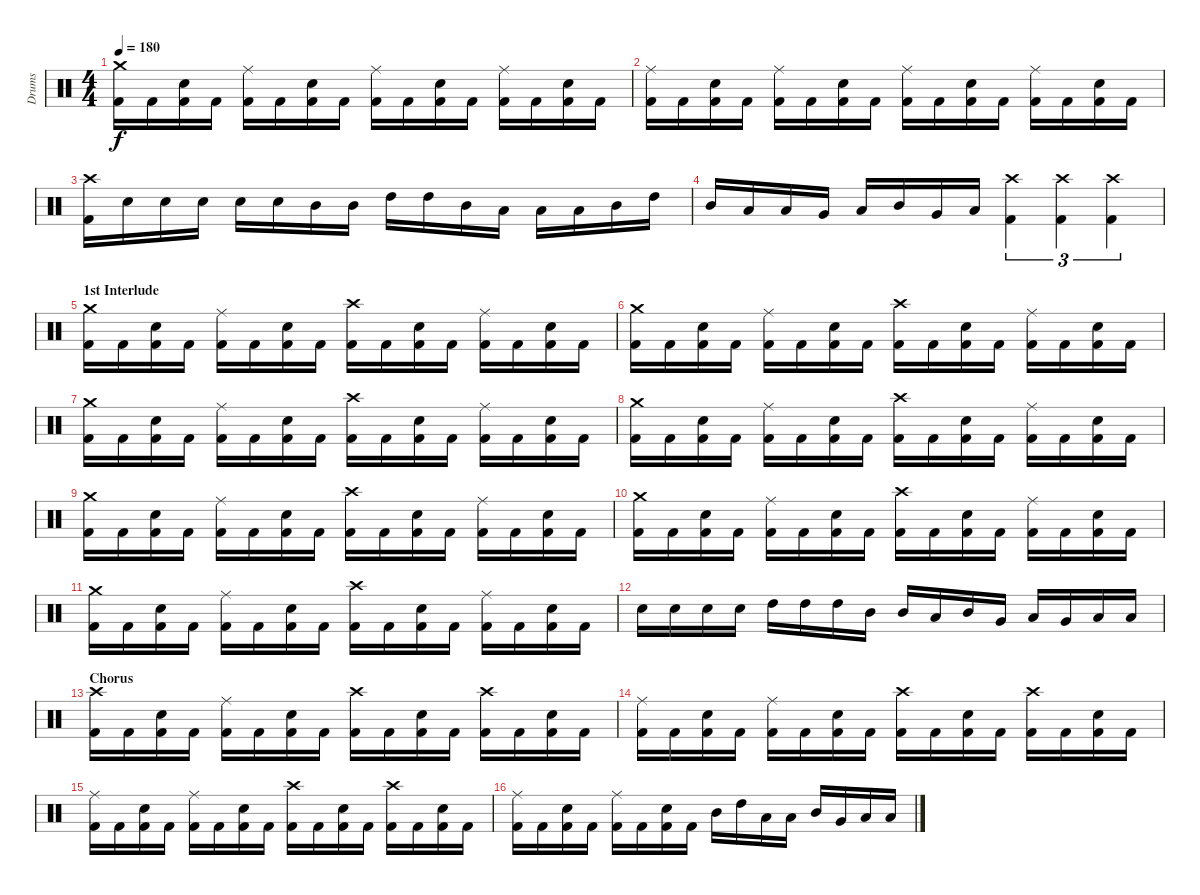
\track ("Drums" "Drums") {instrument percussion}
\staff {score}
\articulation defaults
\ts (4 4)
\tempo 180
\clef neutral
\ks c
("Crash medium (hit)" "Kick (hit) 2").16{dy f} "Kick (hit) 2".16 ("Electric Snare (hit)" "Kick (hit) 2").16 "Kick (hit) 2".16 ("Ride (middle)" "Kick (hit) 2").16 "Kick (hit) 2".16 ("Electric Snare (hit)" "Kick (hit) 2").16 "Kick (hit) 2".16 ("Ride (middle)" "Kick (hit) 2").16 "Kick (hit) 2".16 ("Electric Snare (hit)" "Kick (hit) 2").16 "Kick (hit) 2".16 ("Ride (middle)" "Kick (hit) 2").16 "Kick (hit) 2".16 ("Electric Snare (hit)" "Kick (hit) 2").16 "Kick (hit) 2".16 |
("Ride (middle)" "Kick (hit) 2").16 "Kick (hit) 2".16 ("Electric Snare (hit)" "Kick (hit) 2").16 "Kick (hit) 2".16 ("Ride (middle)" "Kick (hit) 2").16 "Kick (hit) 2".16 ("Electric Snare (hit)" "Kick (hit) 2").16 "Kick (hit) 2".16 ("Ride (middle)" "Kick (hit) 2").16 "Kick (hit) 2".16 ("Electric Snare (hit)" "Kick (hit) 2").16 "Kick (hit) 2".16 ("Ride (middle)" "Kick (hit) 2").16 "Kick (hit) 2".16 ("Electric Snare (hit)" "Kick (hit) 2").16 "Kick (hit) 2".16 |
("Crash high (hit)" "Kick (hit) 2").16 "Electric Snare (hit)".16 "Electric Snare (hit)".16 "Electric Snare (hit)".16 "Electric Snare (hit)".16 "Electric Snare (hit)".16 "Mid Tom (hit)".16 "Mid Tom (hit)".16 "High Tom (hit)".16 "High Tom (hit)".16 "Mid Tom (hit)".16 "Low Tom (hit)".16 "Low Tom (hit)".16 "Low Tom (hit)".16 "Mid Tom (hit)".16 "High Tom (hit)".16 |
"Mid Tom (hit)".16 "Low Tom (hit)".16 "Low Tom (hit)".16 "Very Low Tom (hit)".16 "Low Tom (hit)".16 "Mid Tom (hit)".16 "Very Low Tom (hit)".16 "Low Floor Tom (hit)".16 ("Crash high (hit)" "Kick (hit) 2").4{tu (3 2)} ("Crash high (hit)" "Kick (hit) 2").4{tu (3 2)} ("Crash high (hit)" "Kick (hit) 2").4{tu (3 2)} |
\section ("" "1st Interlude")
("Crash medium (hit)" "Kick (hit) 2").16 "Kick (hit) 2".16 ("Electric Snare (hit)" "Kick (hit) 2").16 "Kick (hit) 2".16 ("Ride (middle)" "Kick (hit) 2").16 "Kick (hit) 2".16 ("Electric Snare (hit)" "Kick (hit) 2").16 "Kick (hit) 2".16 ("Crash high (hit)" "Kick (hit) 2").16 "Kick (hit) 2".16 ("Electric Snare (hit)" "Kick (hit) 2").16 "Kick (hit) 2".16 ("Ride (middle)" "Kick (hit) 2").16 "Kick (hit) 2".16 ("Electric Snare (hit)" "Kick (hit) 2").16 "Kick (hit) 2".16 |
("Crash medium (hit)" "Kick (hit) 2").16 "Kick (hit) 2".16 ("Electric Snare (hit)" "Kick (hit) 2").16 "Kick (hit) 2".16 ("Ride (middle)" "Kick (hit) 2").16 "Kick (hit) 2".16 ("Electric Snare (hit)" "Kick (hit) 2").16 "Kick (hit) 2".16 ("Crash high (hit)" "Kick (hit) 2").16 "Kick (hit) 2".16 ("Electric Snare (hit)" "Kick (hit) 2").16 "Kick (hit) 2".16 ("Ride (middle)" "Kick (hit) 2").16 "Kick (hit) 2".16 ("Electric Snare (hit)" "Kick (hit) 2").16 "Kick (hit) 2".16 |
("Crash medium (hit)" "Kick (hit) 2").16 "Kick (hit) 2".16 ("Electric Snare (hit)" "Kick (hit) 2").16 "Kick (hit) 2".16 ("Ride (middle)" "Kick (hit) 2").16 "Kick (hit) 2".16 ("Electric Snare (hit)" "Kick (hit) 2").16 "Kick (hit) 2".16 ("Crash high (hit)" "Kick (hit) 2").16 "Kick (hit) 2".16 ("Electric Snare (hit)" "Kick (hit) 2").16 "Kick (hit) 2".16 ("Ride (middle)" "Kick (hit) 2").16 "Kick (hit) 2".16 ("Electric Snare (hit)" "Kick (hit) 2").16 "Kick (hit) 2".16 |
("Crash medium (hit)" "Kick (hit) 2").16 "Kick (hit) 2".16 ("Electric Snare (hit)" "Kick (hit) 2").16 "Kick (hit) 2".16 ("Ride (middle)" "Kick (hit) 2").16 "Kick (hit) 2".16 ("Electric Snare (hit)" "Kick (hit) 2").16 "Kick (hit) 2".16 ("Crash high (hit)" "Kick (hit) 2").16 "Kick (hit) 2".16 ("Electric Snare (hit)" "Kick (hit) 2").16 "Kick (hit) 2".16 ("Ride (middle)" "Kick (hit) 2").16 "Kick (hit) 2".16 ("Electric Snare (hit)" "Kick (hit) 2").16 "Kick (hit) 2".16 |
("Crash medium (hit)" "Kick (hit) 2").16 "Kick (hit) 2".16 ("Electric Snare (hit)" "Kick (hit) 2").16 "Kick (hit) 2".16 ("Ride (middle)" "Kick (hit) 2").16 "Kick (hit) 2".16 ("Electric Snare (hit)" "Kick (hit) 2").16 "Kick (hit) 2".16 ("Crash high (hit)" "Kick (hit) 2").16 "Kick (hit) 2".16 ("Electric Snare (hit)" "Kick (hit) 2").16 "Kick (hit) 2".16 ("Ride (middle)" "Kick (hit) 2").16 "Kick (hit) 2".16 ("Electric Snare (hit)" "Kick (hit) 2").16 "Kick (hit) 2".16 |
("Crash medium (hit)" "Kick (hit) 2").16 "Kick (hit) 2".16 ("Electric Snare (hit)" "Kick (hit) 2").16 "Kick (hit) 2".16 ("Ride (middle)" "Kick (hit) 2").16 "Kick (hit) 2".16 ("Electric Snare (hit)" "Kick (hit) 2").16 "Kick (hit) 2".16 ("Crash high (hit)" "Kick (hit) 2").16 "Kick (hit) 2".16 ("Electric Snare (hit)" "Kick (hit) 2").16 "Kick (hit) 2".16 ("Ride (middle)" "Kick (hit) 2").16 "Kick (hit) 2".16 ("Electric Snare (hit)" "Kick (hit) 2").16 "Kick (hit) 2".16 |
("Crash medium (hit)" "Kick (hit) 2").16 "Kick (hit) 2".16 ("Electric Snare (hit)" "Kick (hit) 2").16 "Kick (hit) 2".16 ("Ride (middle)" "Kick (hit) 2").16 "Kick (hit) 2".16 ("Electric Snare (hit)" "Kick (hit) 2").16 "Kick (hit) 2".16 ("Crash high (hit)" "Kick (hit) 2").16 "Kick (hit) 2".16 ("Electric Snare (hit)" "Kick (hit) 2").16 "Kick (hit) 2".16 ("Ride (middle)" "Kick (hit) 2").16 "Kick (hit) 2".16 ("Electric Snare (hit)" "Kick (hit) 2").16 "Kick (hit) 2".16 |
"Electric Snare (hit)".16 "Electric Snare (hit)".16 "Electric Snare (hit)".16 "Electric Snare (hit)".16 "High Tom (hit)".16 "High Tom (hit)".16 "High Tom (hit)".16 "Mid Tom (hit)".16 "Mid Tom (hit)".16 "Low Tom (hit)".16 "Mid Tom (hit)".16 "Very Low Tom (hit)".16 "Low Tom (hit)".16 "Very Low Tom (hit)".16 "Low Tom (hit)".16 "Low Floor Tom (hit)".16 |
\section ("" "Chorus")
("Crash high (hit)" "Kick (hit) 2").16 "Kick (hit) 2".16 ("Electric Snare (hit)" "Kick (hit) 2").16 "Kick (hit) 2".16 ("Ride (middle)" "Kick (hit) 2").16 "Kick (hit) 2".16 ("Electric Snare (hit)" "Kick (hit) 2").16 "Kick (hit) 2".16 ("Crash high (hit)" "Kick (hit) 2").16 "Kick (hit) 2".16 ("Electric Snare (hit)" "Kick (hit) 2").16 "Kick (hit) 2".16 ("Crash high (hit)" "Kick (hit) 2").16 "Kick (hit) 2".16 ("Electric Snare (hit)" "Kick (hit) 2").16 "Kick (hit) 2".16 |
("Ride (middle)" "Kick (hit) 2").16 "Kick (hit) 2".16 ("Electric Snare (hit)" "Kick (hit) 2").16 "Kick (hit) 2".16 ("Ride (middle)" "Kick (hit) 2").16 "Kick (hit) 2".16 ("Electric Snare (hit)" "Kick (hit) 2").16 "Kick (hit) 2".16 ("Crash high (hit)" "Kick (hit) 2").16 "Kick (hit) 2".16 ("Electric Snare (hit)" "Kick (hit) 2").16 "Kick (hit) 2".16 ("Crash high (hit)" "Kick (hit) 2").16 "Kick (hit) 2".16 ("Electric Snare (hit)" "Kick (hit) 2").16 "Kick (hit) 2".16 |
("Ride (middle)" "Kick (hit) 2").16 "Kick (hit) 2".16 ("Electric Snare (hit)" "Kick (hit) 2").16 "Kick (hit) 2".16 ("Ride (middle)" "Kick (hit) 2").16 "Kick (hit) 2".16 ("Electric Snare (hit)" "Kick (hit) 2").16 "Kick (hit) 2".16 ("Crash high (hit)" "Kick (hit) 2").16 "Kick (hit) 2".16 ("Electric Snare (hit)" "Kick (hit) 2").16 "Kick (hit) 2".16 ("Crash high (hit)" "Kick (hit) 2").16 "Kick (hit) 2".16 ("Electric Snare (hit)" "Kick (hit) 2").16 "Kick (hit) 2".16 |
("Ride (middle)" "Kick (hit) 2").16 "Kick (hit) 2".16 ("Electric Snare (hit)" "Kick (hit) 2").16 "Kick (hit) 2".16 ("Ride (middle)" "Kick (hit) 2").16 "Kick (hit) 2".16 ("Electric Snare (hit)" "Kick (hit) 2").16 "Kick (hit) 2".16 "Mid Tom (hit)".16 "High Tom (hit)".16 "Low Tom (hit)".16 "Low Tom (hit)".16 "Mid Tom (hit)".16 "Very Low Tom (hit)".16 "Low Tom (hit)".16 "Low Floor Tom (hit)".16
